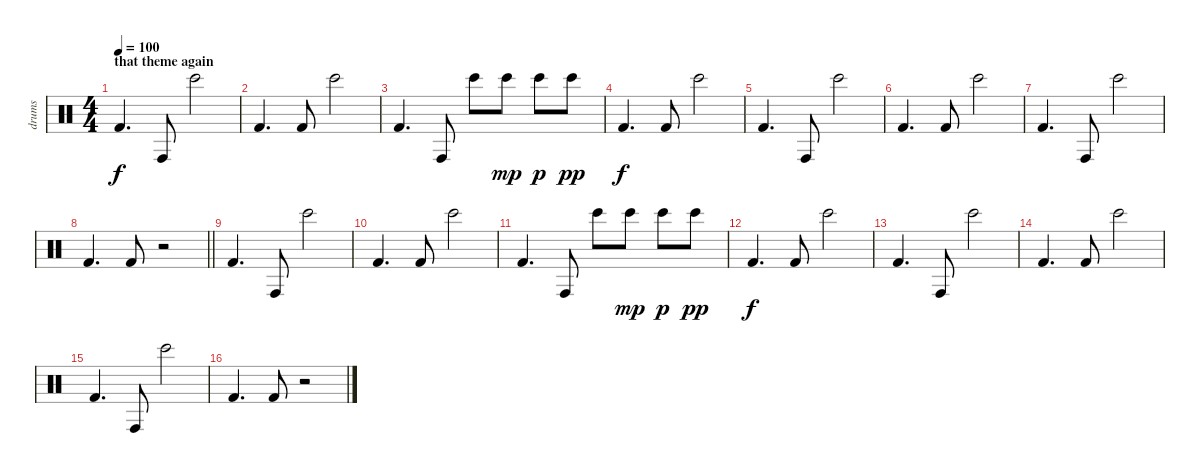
\track ("drums" "drums") {instrument percussion}
\staff {score}
\articulation defaults
\ts (4 4)
\section ("" "that theme again")
\tempo 100
\clef neutral
\ks c "Kick (hit) 2".4{d dy f} "Conga high (hit)".8 "Bongo High (hit)".2
|
"Kick (hit) 2".4{d} "Kick (hit) 2".8 "Bongo High (hit)".2 |
"Kick (hit) 2".4{d} "Conga high (hit)".8 "Bongo High (hit)".8 "Bongo High (hit)".8{dy mp} "Bongo High (hit)".8{dy p} "Bongo High (hit)".8{dy pp} |
"Kick (hit) 2".4{d dy f} "Kick (hit) 2".8 "Bongo High (hit)".2 |
"Kick (hit) 2".4{d} "Conga high (hit)".8 "Bongo High (hit)".2 |
"Kick (hit) 2".4{d} "Kick (hit) 2".8 "Bongo High (hit)".2 |
"Kick (hit) 2".4{d} "Conga high (hit)".8 "Bongo High (hit)".2 |
\barLineRight lightlight "Kick (hit) 2".4{d} "Kick (hit) 2".8
r.2 |
"Kick (hit) 2".4{d} "Conga high (hit)".8 "Bongo High (hit)".2 |
"Kick (hit) 2".4{d} "Kick (hit) 2".8 "Bongo High (hit)".2 |
"Kick (hit) 2".4{d} "Conga high (hit)".8 "Bongo High (hit)".8 "Bongo High (hit)".8{dy mp} "Bongo High (hit)".8{dy p} "Bongo High (hit)".8{dy pp} |
"Kick (hit) 2".4{d dy f} "Kick (hit) 2".8 "Bongo High (hit)".2 |
"Kick (hit) 2".4{d} "Conga high (hit)".8 "Bongo High (hit)".2 |
"Kick (hit) 2".4{d} "Kick (hit) 2".8 "Bongo High (hit)".2 |
"Kick (hit) 2".4{d} "Conga high (hit)".8 "Bongo High (hit)".2 |
"Kick (hit) 2".4{d} "Kick (hit) 2".8 r.2
